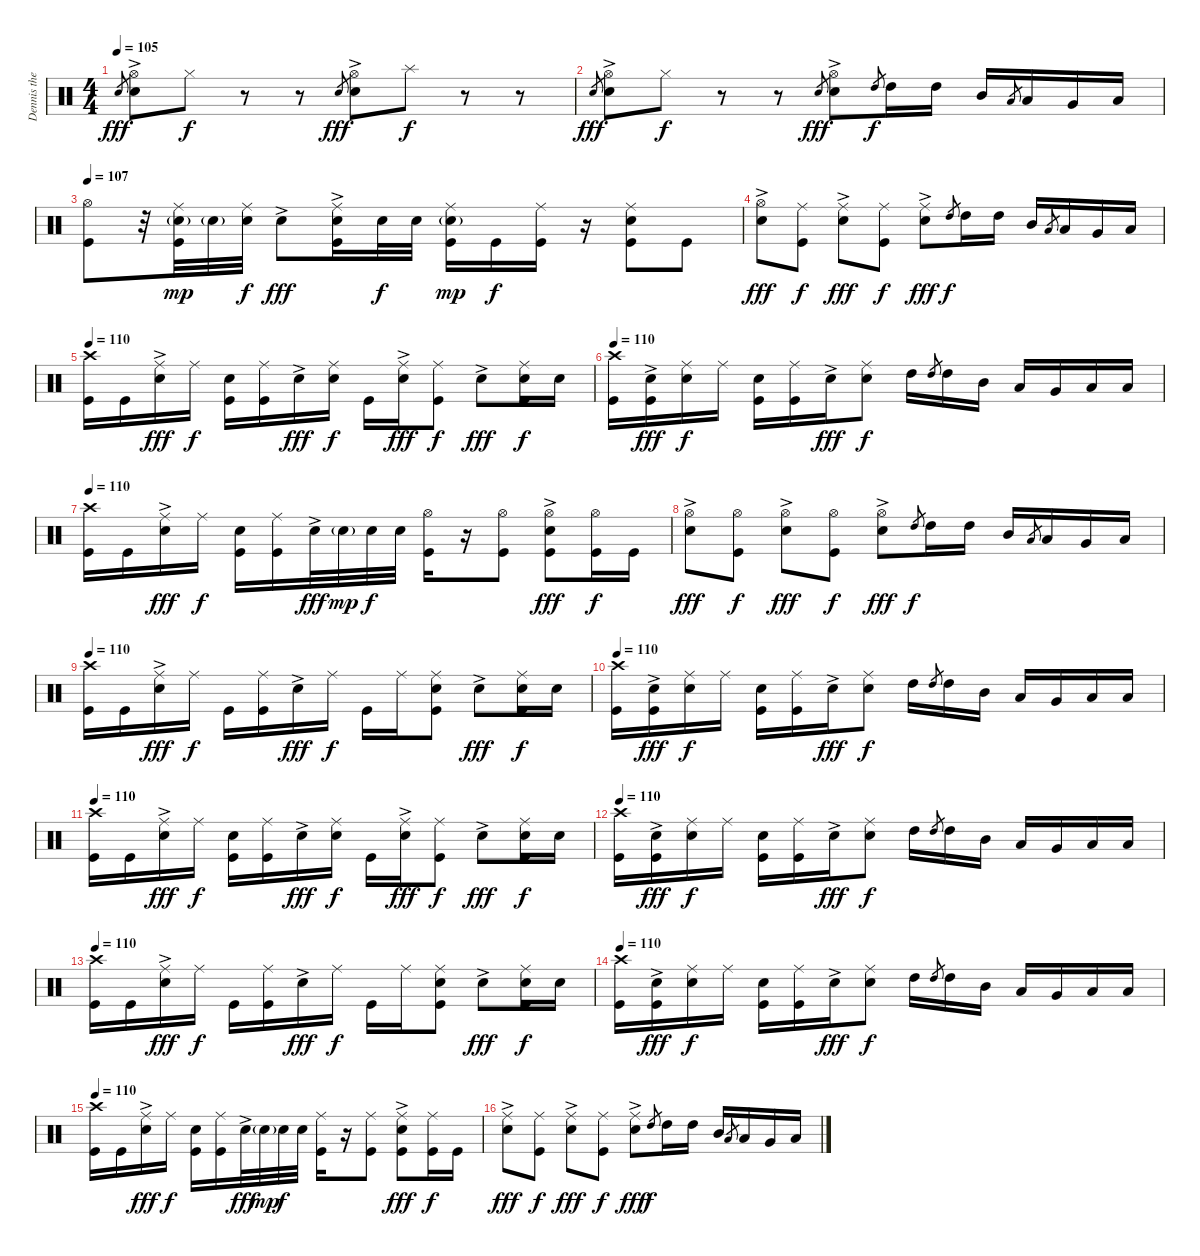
\track ("Dennis the Menace" "Dennis the") {instrument percussion}
\staff {score}
\articulation defaults
\ts (4 4)
\tempo 105
\clef neutral
\ks c "Electric Snare (hit)".8{gr dy fff}
("Hi-Hat (open)" "Electric Snare (hit)"{ac}).8 "Hi-Hat (closed)".8{dy f} r.8 r.8 "Electric Snare (hit)".8{gr dy fff} ("Hi-Hat (open)" "Electric Snare (hit)"{ac}).8 "Splash (hit)".8{dy f} r.8 r.8 |
"Electric Snare (hit)".8{gr dy fff} ("Hi-Hat (open)" "Electric Snare (hit)"{ac}).8 "Hi-Hat (closed)".8{dy f} r.8 r.8 "Electric Snare (hit)".8{gr dy fff} ("Hi-Hat (open)" "Electric Snare (hit)"{ac}).8 "High Tom (hit)".8{gr dy f} "High Tom (hit)".16 "High Tom (hit)".16 "Mid Tom (hit)".16 "Low Tom (hit)".8{gr} "Low Tom (hit)".16 "Very Low Tom (hit)".16 "Low Floor Tom (hit)".16 |
\tempo 107
("Hi-Hat (open)" "Kick (hit)").8 r.32 ("Ride (middle)" "Electric Snare (hit)"{g} "Kick (hit)").32{dy mp} "Electric Snare (hit)"{g}.32 ("Ride (middle)" "Electric Snare (hit)").32{dy f} "Electric Snare (hit)"{ac}.8{dy fff} ("Ride (middle)" "Electric Snare (hit)"{ac} "Kick (hit)").16 "Electric Snare (hit)".32{dy f} "Electric Snare (hit)".32 ("Ride (middle)" "Electric Snare (hit)"{g} "Kick (hit)").16{dy mp} "Kick (hit)".16{dy f} ("Ride (middle)" "Kick (hit)").16 r.16 ("Ride (middle)" "Electric Snare (hit)" "Kick (hit)").8 "Kick (hit)".8 |
("Hi-Hat (open)" "Electric Snare (hit)"{ac}).8{dy fff} ("Ride (middle)" "Kick (hit)").8{dy f} ("Ride (middle)" "Electric Snare (hit)"{ac}).8{dy fff} ("Ride (middle)" "Kick (hit)").8{dy f} ("Ride (middle)" "Electric Snare (hit)"{ac}).8{dy fff} "High Tom (hit)".8{gr dy f} "High Tom (hit)".16 "High Tom (hit)".16 "Mid Tom (hit)".16 "Low Tom (hit)".8{gr} "Low Tom (hit)".16 "Very Low Tom (hit)".16 "Low Floor Tom (hit)".16 |
\tempo 110
("Crash high (hit)" "Kick (hit)").16 "Kick (hit)".16 ("Ride (middle)" "Electric Snare (hit)"{ac}).16{dy fff} "Ride (middle)".16{dy f} ("Electric Snare (hit)" "Kick (hit)").16 ("Ride (middle)" "Kick (hit)").16 "Electric Snare (hit)"{ac}.16{dy fff} ("Ride (middle)" "Electric Snare (hit)").16{dy f} "Kick (hit)".16 ("Ride (middle)" "Electric Snare (hit)"{ac}).16{dy fff} ("Ride (middle)" "Kick (hit)").8{dy f} "Electric Snare (hit)"{ac}.8{dy fff} ("Ride (middle)" "Electric Snare (hit)" "Kick (hit)").16{dy f} "Electric Snare (hit)".16 |
\tempo 110
("Crash high (hit)" "Kick (hit)").16 ("Electric Snare (hit)"{ac} "Kick (hit)").16{dy fff} ("Ride (middle)" "Electric Snare (hit)").16{dy f} "Ride (middle)".16 ("Electric Snare (hit)" "Kick (hit)").16 ("Ride (middle)" "Kick (hit)").16 "Electric Snare (hit)"{ac}.16{dy fff} ("Ride (middle)" "Electric Snare (hit)").8{dy f} "High Tom (hit)".16 "High Tom (hit)".8{gr} "High Tom (hit)".16 "Mid Tom (hit)".16 "Low Tom (hit)".16 "Very Low Tom (hit)".16 "Low Floor Tom (hit)".16 "Low Floor Tom (hit)".16 |
\tempo 110
("Crash high (hit)" "Kick (hit)").16 "Kick (hit)".16 ("Ride (middle)" "Electric Snare (hit)"{ac}).16{dy fff} "Ride (middle)".16{dy f} ("Electric Snare (hit)" "Kick (hit)").16 ("Ride (middle)" "Kick (hit)").16 "Electric Snare (hit)"{ac}.32{dy fff} "Electric Snare (hit)"{g}.32{dy mp} "Electric Snare (hit)".32{dy f} "Electric Snare (hit)".32 ("Hi-Hat (open)" "Kick (hit)").16 r.16 ("Hi-Hat (open)" "Kick (hit)").8 ("Hi-Hat (open)" "Electric Snare (hit)"{ac} "Kick (hit)").8{dy fff} ("Hi-Hat (open)" "Kick (hit)").16{dy f} "Kick (hit)".16 |
("Hi-Hat (open)" "Electric Snare (hit)"{ac}).8{dy fff} ("Hi-Hat (open)" "Kick (hit)").8{dy f} ("Hi-Hat (open)" "Electric Snare (hit)"{ac}).8{dy fff} ("Hi-Hat (open)" "Kick (hit)").8{dy f} ("Hi-Hat (open)" "Electric Snare (hit)"{ac}).8{dy fff} "High Tom (hit)".8{gr dy f} "High Tom (hit)".16 "High Tom (hit)".16 "Mid Tom (hit)".16 "Low Tom (hit)".8{gr} "Low Tom (hit)".16 "Very Low Tom (hit)".16 "Low Floor Tom (hit)".16 |
\tempo 112
\tempo 110
("Crash high (hit)" "Kick (hit)").16 "Kick (hit)".16 ("Ride (middle)" "Electric Snare (hit)"{ac}).16{dy fff} "Ride (middle)".16{dy f} "Kick (hit)".16 ("Ride (middle)" "Kick (hit)").16 "Electric Snare (hit)"{ac}.16{dy fff} "Ride (middle)".16{dy f} "Kick (hit)".16 "Ride (middle)".16 ("Ride (middle)" "Electric Snare (hit)" "Kick (hit)").8 "Electric Snare (hit)"{ac}.8{dy fff} ("Ride (middle)" "Electric Snare (hit)" "Kick (hit)").16{dy f} "Electric Snare (hit)".16 |
\tempo 110
("Crash high (hit)" "Kick (hit)").16 ("Electric Snare (hit)"{ac} "Kick (hit)").16{dy fff} ("Ride (middle)" "Electric Snare (hit)").16{dy f} "Ride (middle)".16 ("Electric Snare (hit)" "Kick (hit)").16 ("Ride (middle)" "Kick (hit)").16 "Electric Snare (hit)"{ac}.16{dy fff} ("Ride (middle)" "Electric Snare (hit)").8{dy f} "High Tom (hit)".16 "High Tom (hit)".8{gr} "High Tom (hit)".16 "Mid Tom (hit)".16 "Low Tom (hit)".16 "Very Low Tom (hit)".16 "Low Floor Tom (hit)".16 "Low Floor Tom (hit)".16 |
\tempo 110
("Crash high (hit)" "Kick (hit)").16 "Kick (hit)".16 ("Ride (middle)" "Electric Snare (hit)"{ac}).16{dy fff} "Ride (middle)".16{dy f} ("Electric Snare (hit)" "Kick (hit)").16 ("Ride (middle)" "Kick (hit)").16 "Electric Snare (hit)"{ac}.16{dy fff} ("Ride (middle)" "Electric Snare (hit)").16{dy f} "Kick (hit)".16 ("Ride (middle)" "Electric Snare (hit)"{ac}).16{dy fff} ("Ride (middle)" "Kick (hit)").8{dy f} "Electric Snare (hit)"{ac}.8{dy fff} ("Ride (middle)" "Electric Snare (hit)" "Kick (hit)").16{dy f} "Electric Snare (hit)".16 |
\tempo 110
("Crash high (hit)" "Kick (hit)").16 ("Electric Snare (hit)"{ac} "Kick (hit)").16{dy fff} ("Ride (middle)" "Electric Snare (hit)").16{dy f} "Ride (middle)".16 ("Electric Snare (hit)" "Kick (hit)").16 ("Ride (middle)" "Kick (hit)").16 "Electric Snare (hit)"{ac}.16{dy fff} ("Ride (middle)" "Electric Snare (hit)").8{dy f} "High Tom (hit)".16 "High Tom (hit)".8{gr} "High Tom (hit)".16 "Mid Tom (hit)".16 "Low Tom (hit)".16 "Very Low Tom (hit)".16 "Low Floor Tom (hit)".16 "Low Floor Tom (hit)".16 |
\tempo 112
\tempo 110
("Crash high (hit)" "Kick (hit)").16 "Kick (hit)".16 ("Ride (middle)" "Electric Snare (hit)"{ac}).16{dy fff} "Ride (middle)".16{dy f} "Kick (hit)".16 ("Ride (middle)" "Kick (hit)").16 "Electric Snare (hit)"{ac}.16{dy fff} "Ride (middle)".16{dy f} "Kick (hit)".16 "Ride (middle)".16 ("Ride (middle)" "Electric Snare (hit)" "Kick (hit)").8 "Electric Snare (hit)"{ac}.8{dy fff} ("Ride (middle)" "Electric Snare (hit)" "Kick (hit)").16{dy f} "Electric Snare (hit)".16 |
\tempo 110
("Crash high (hit)" "Kick (hit)").16 ("Electric Snare (hit)"{ac} "Kick (hit)").16{dy fff} ("Ride (middle)" "Electric Snare (hit)").16{dy f} "Ride (middle)".16 ("Electric Snare (hit)" "Kick (hit)").16 ("Ride (middle)" "Kick (hit)").16 "Electric Snare (hit)"{ac}.16{dy fff} ("Ride (middle)" "Electric Snare (hit)").8{dy f} "High Tom (hit)".16 "High Tom (hit)".8{gr} "High Tom (hit)".16 "Mid Tom (hit)".16 "Low Tom (hit)".16 "Very Low Tom (hit)".16 "Low Floor Tom (hit)".16 "Low Floor Tom (hit)".16 |
\tempo 110
("Crash high (hit)" "Kick (hit)").16 "Kick (hit)".16 ("Ride (middle)" "Electric Snare (hit)"{ac}).16{dy fff} "Ride (middle)".16{dy f} ("Electric Snare (hit)" "Kick (hit)").16 ("Ride (middle)" "Kick (hit)").16 "Electric Snare (hit)"{ac}.32{dy fff} "Electric Snare (hit)"{g}.32{dy mp} "Electric Snare (hit)".32{dy f} "Electric Snare (hit)".32 ("Ride (middle)" "Kick (hit)").16 r.16 ("Ride (middle)" "Kick (hit)").8 ("Ride (middle)" "Electric Snare (hit)"{ac} "Kick (hit)").8{dy fff} ("Ride (middle)" "Kick (hit)").16{dy f} "Kick (hit)".16 |
("Ride (middle)" "Electric Snare (hit)"{ac}).8{dy fff} ("Ride (middle)" "Kick (hit)").8{dy f} ("Ride (middle)" "Electric Snare (hit)"{ac}).8{dy fff} ("Ride (middle)" "Kick (hit)").8{dy f} ("Ride (middle)" "Electric Snare (hit)"{ac}).8{dy fff} "High Tom (hit)".8{gr dy f} "High Tom (hit)".16 "High Tom (hit)".16 "Mid Tom (hit)".16 "Low Tom (hit)".8{gr} "Low Tom (hit)".16 "Very Low Tom (hit)".16 "Low Floor Tom (hit)".16
